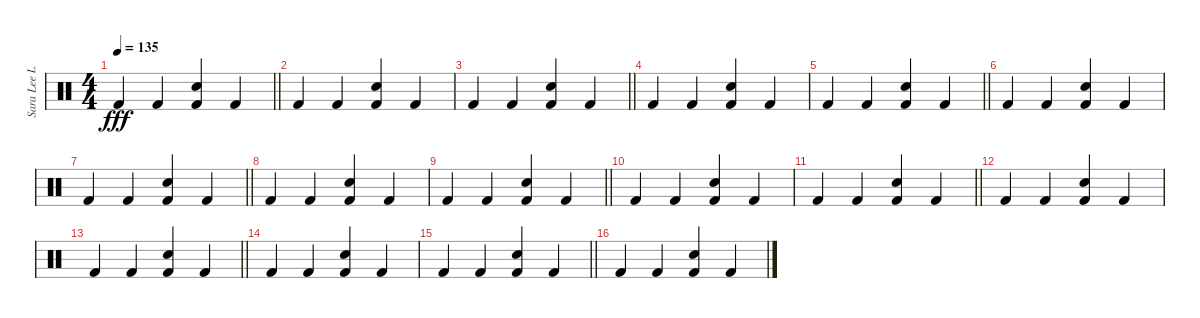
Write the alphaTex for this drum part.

\track ("Sara Lee Lucas" "Sara Lee L") {instrument percussion}
\staff {score}
\articulation defaults
\ts (4 4)
\tempo 135
\clef neutral
\barLineRight lightlight
\ks c "Kick (hit) 2".4{dy fff} "Kick (hit) 2".4
("Snare (hit) 2" "Kick (hit) 2").4 "Kick (hit) 2".4 |
"Kick (hit) 2".4 "Kick (hit) 2".4 ("Snare (hit) 2" "Kick (hit) 2").4 "Kick (hit) 2".4 |
\barLineRight lightlight "Kick (hit) 2".4 "Kick (hit) 2".4
("Snare (hit) 2" "Kick (hit) 2").4 "Kick (hit) 2".4 |
"Kick (hit) 2".4 "Kick (hit) 2".4 ("Snare (hit) 2" "Kick (hit) 2").4 "Kick (hit) 2".4 |
\barLineRight lightlight "Kick (hit) 2".4 "Kick (hit) 2".4
("Snare (hit) 2" "Kick (hit) 2").4 "Kick (hit) 2".4 |
"Kick (hit) 2".4 "Kick (hit) 2".4 ("Snare (hit) 2" "Kick (hit) 2").4 "Kick (hit) 2".4 |
\barLineRight lightlight "Kick (hit) 2".4 "Kick (hit) 2".4
("Snare (hit) 2" "Kick (hit) 2").4 "Kick (hit) 2".4 |
"Kick (hit) 2".4 "Kick (hit) 2".4 ("Snare (hit) 2" "Kick (hit) 2").4 "Kick (hit) 2".4 |
\barLineRight lightlight "Kick (hit) 2".4 "Kick (hit) 2".4
("Snare (hit) 2" "Kick (hit) 2").4 "Kick (hit) 2".4 |
"Kick (hit) 2".4 "Kick (hit) 2".4 ("Snare (hit) 2" "Kick (hit) 2").4 "Kick (hit) 2".4 |
\barLineRight lightlight "Kick (hit) 2".4 "Kick (hit) 2".4
("Snare (hit) 2" "Kick (hit) 2").4 "Kick (hit) 2".4 |
"Kick (hit) 2".4 "Kick (hit) 2".4 ("Snare (hit) 2" "Kick (hit) 2").4 "Kick (hit) 2".4 |
\barLineRight lightlight "Kick (hit) 2".4 "Kick (hit) 2".4
("Snare (hit) 2" "Kick (hit) 2").4 "Kick (hit) 2".4 |
"Kick (hit) 2".4 "Kick (hit) 2".4 ("Snare (hit) 2" "Kick (hit) 2").4 "Kick (hit) 2".4 |
\barLineRight lightlight "Kick (hit) 2".4 "Kick (hit) 2".4
("Snare (hit) 2" "Kick (hit) 2").4 "Kick (hit) 2".4 |
"Kick (hit) 2".4 "Kick (hit) 2".4 ("Snare (hit) 2" "Kick (hit) 2").4 "Kick (hit) 2".4
